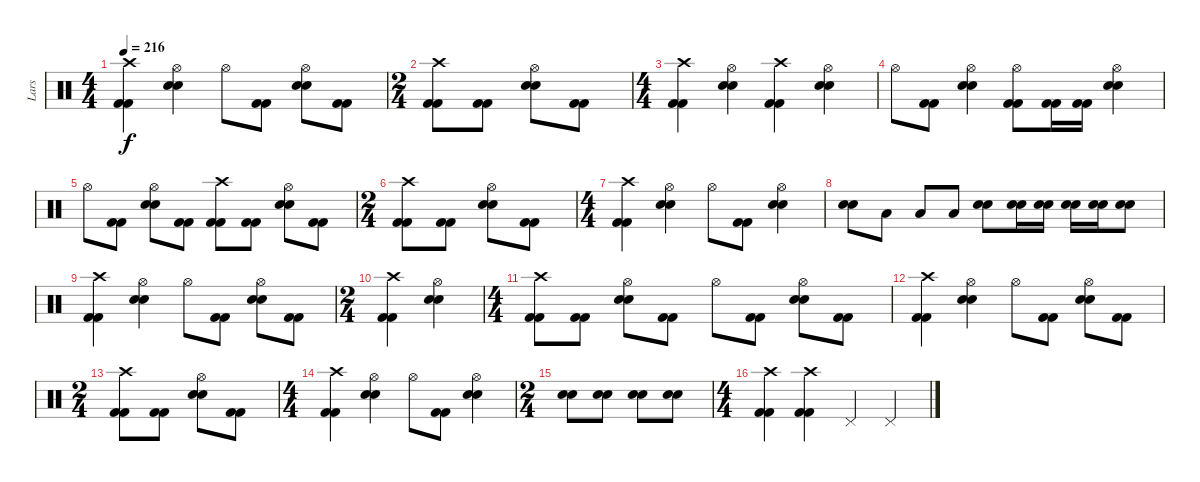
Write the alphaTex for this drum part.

\track ("Lars" "Lars") {instrument percussion}
\staff {score}
\articulation defaults
\ts (4 4)
\tempo 216
\clef neutral
\ks c
("Crash high (hit)" "Kick (hit) 2" "Kick (hit) 2").4{dy f} ("Hi-Hat (open)" "Electric Snare (hit)" "Electric Snare (hit)").4 "Hi-Hat (open)".8 ("Kick (hit) 2" "Kick (hit) 2").8 ("Hi-Hat (open)" "Electric Snare (hit)" "Electric Snare (hit)").8 ("Kick (hit) 2" "Kick (hit) 2").8 |
\ts (2 4)
("Crash high (hit)" "Kick (hit) 2" "Kick (hit) 2").8 ("Kick (hit) 2" "Kick (hit) 2").8 ("Hi-Hat (open)" "Electric Snare (hit)" "Electric Snare (hit)").8 ("Kick (hit) 2" "Kick (hit) 2").8 |
\ts (4 4)
("Crash high (hit)" "Kick (hit) 2" "Kick (hit) 2").4 ("Hi-Hat (open)" "Electric Snare (hit)" "Electric Snare (hit)").4 ("Crash high (hit)" "Kick (hit) 2" "Kick (hit) 2").4 ("Hi-Hat (open)" "Electric Snare (hit)" "Electric Snare (hit)").4 |
"Hi-Hat (open)".8 ("Kick (hit) 2" "Kick (hit) 2").8 ("Hi-Hat (open)" "Electric Snare (hit)" "Electric Snare (hit)").4 ("Hi-Hat (open)" "Kick (hit) 2" "Kick (hit) 2").8 ("Kick (hit) 2" "Kick (hit) 2").16 ("Kick (hit) 2" "Kick (hit) 2").16 ("Hi-Hat (open)" "Electric Snare (hit)" "Electric Snare (hit)").4 |
"Hi-Hat (open)".8 ("Kick (hit) 2" "Kick (hit) 2").8 ("Hi-Hat (open)" "Electric Snare (hit)" "Electric Snare (hit)").8 ("Kick (hit) 2" "Kick (hit) 2").8 ("Crash high (hit)" "Kick (hit) 2" "Kick (hit) 2").8 ("Kick (hit) 2" "Kick (hit) 2").8 ("Hi-Hat (open)" "Electric Snare (hit)" "Electric Snare (hit)").8 ("Kick (hit) 2" "Kick (hit) 2").8 |
\ts (2 4)
("Crash high (hit)" "Kick (hit) 2" "Kick (hit) 2").8 ("Kick (hit) 2" "Kick (hit) 2").8 ("Hi-Hat (open)" "Electric Snare (hit)" "Electric Snare (hit)").8 ("Kick (hit) 2" "Kick (hit) 2").8 |
\ts (4 4)
("Crash high (hit)" "Kick (hit) 2" "Kick (hit) 2").4 ("Hi-Hat (open)" "Electric Snare (hit)" "Electric Snare (hit)").4 "Hi-Hat (open)".8 ("Kick (hit) 2" "Kick (hit) 2").8 ("Hi-Hat (open)" "Electric Snare (hit)" "Electric Snare (hit)").4 |
("Electric Snare (hit)" "Electric Snare (hit)").8 "Low Tom (hit)".8 "Low Tom (hit)".8 "Low Tom (hit)".8 ("Electric Snare (hit)" "Electric Snare (hit)").8 ("Electric Snare (hit)" "Electric Snare (hit)").16 ("Electric Snare (hit)" "Electric Snare (hit)").16 ("Electric Snare (hit)" "Electric Snare (hit)").16 ("Electric Snare (hit)" "Electric Snare (hit)").16 ("Electric Snare (hit)" "Electric Snare (hit)").8 |
("Crash high (hit)" "Kick (hit) 2" "Kick (hit) 2").4 ("Hi-Hat (open)" "Electric Snare (hit)" "Electric Snare (hit)").4 "Hi-Hat (open)".8 ("Kick (hit) 2" "Kick (hit) 2").8 ("Hi-Hat (open)" "Electric Snare (hit)" "Electric Snare (hit)").8 ("Kick (hit) 2" "Kick (hit) 2").8 |
\ts (2 4)
("Crash high (hit)" "Kick (hit) 2" "Kick (hit) 2").4 ("Hi-Hat (open)" "Electric Snare (hit)" "Electric Snare (hit)").4 |
\ts (4 4)
("Crash high (hit)" "Kick (hit) 2" "Kick (hit) 2").8 ("Kick (hit) 2" "Kick (hit) 2").8 ("Hi-Hat (open)" "Electric Snare (hit)" "Electric Snare (hit)").8 ("Kick (hit) 2" "Kick (hit) 2").8 "Hi-Hat (open)".8 ("Kick (hit) 2" "Kick (hit) 2").8 ("Hi-Hat (open)" "Electric Snare (hit)" "Electric Snare (hit)").8 ("Kick (hit) 2" "Kick (hit) 2").8 |
("Crash high (hit)" "Kick (hit) 2" "Kick (hit) 2").4 ("Hi-Hat (open)" "Electric Snare (hit)" "Electric Snare (hit)").4 "Hi-Hat (open)".8 ("Kick (hit) 2" "Kick (hit) 2").8 ("Hi-Hat (open)" "Electric Snare (hit)" "Electric Snare (hit)").8 ("Kick (hit) 2" "Kick (hit) 2").8 |
\ts (2 4)
("Crash high (hit)" "Kick (hit) 2" "Kick (hit) 2").8 ("Kick (hit) 2" "Kick (hit) 2").8 ("Hi-Hat (open)" "Electric Snare (hit)" "Electric Snare (hit)").8 ("Kick (hit) 2" "Kick (hit) 2").8 |
\ts (4 4)
("Crash high (hit)" "Kick (hit) 2" "Kick (hit) 2").4 ("Hi-Hat (open)" "Electric Snare (hit)" "Electric Snare (hit)").4 "Hi-Hat (open)".8 ("Kick (hit) 2" "Kick (hit) 2").8 ("Hi-Hat (open)" "Electric Snare (hit)" "Electric Snare (hit)").4 |
\ts (2 4)
("Electric Snare (hit)" "Electric Snare (hit)").8 ("Electric Snare (hit)" "Electric Snare (hit)").8 ("Electric Snare (hit)" "Electric Snare (hit)").8 ("Electric Snare (hit)" "Electric Snare (hit)").8 |
\ts (4 4)
("Crash high (hit)" "Kick (hit) 2" "Kick (hit) 2").4 ("Crash high (hit)" "Kick (hit) 2" "Kick (hit) 2").4 "Pedal Hi-Hat (hit)".4 "Pedal Hi-Hat (hit)".4
